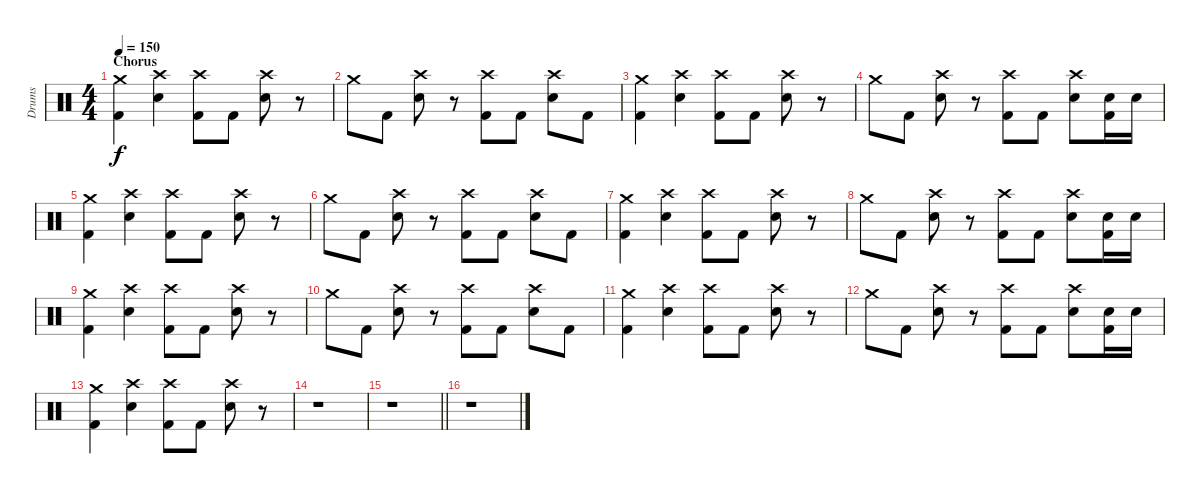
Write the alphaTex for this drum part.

\track ("Drums" "Drums") {instrument percussion}
\staff {score}
\articulation defaults
\ts (4 4)
\section ("" "Chorus")
\tempo 150
\clef neutral
\ks c
("Crash medium (hit)" "Kick (hit) 2").4{dy f} ("Crash high (hit)" "Electric Snare (hit)").4 ("Crash high (hit)" "Kick (hit) 2").8 "Kick (hit) 2".8 ("Crash high (hit)" "Electric Snare (hit)").8 r.8 |
"Crash medium (hit)".8 "Kick (hit) 2".8 ("Crash high (hit)" "Electric Snare (hit)").8 r.8 ("Crash high (hit)" "Kick (hit) 2").8 "Kick (hit) 2".8 ("Crash high (hit)" "Electric Snare (hit)").8 "Kick (hit) 2".8 |
("Crash medium (hit)" "Kick (hit) 2").4 ("Crash high (hit)" "Electric Snare (hit)").4 ("Crash high (hit)" "Kick (hit) 2").8 "Kick (hit) 2".8 ("Crash high (hit)" "Electric Snare (hit)").8 r.8 |
"Crash medium (hit)".8 "Kick (hit) 2".8 ("Crash high (hit)" "Electric Snare (hit)").8 r.8 ("Crash high (hit)" "Kick (hit) 2").8 "Kick (hit) 2".8 ("Crash high (hit)" "Electric Snare (hit)").8 ("Electric Snare (hit)" "Kick (hit) 2").16 "Electric Snare (hit)".16 |
("Crash medium (hit)" "Kick (hit) 2").4 ("Crash high (hit)" "Electric Snare (hit)").4 ("Crash high (hit)" "Kick (hit) 2").8 "Kick (hit) 2".8 ("Crash high (hit)" "Electric Snare (hit)").8 r.8 |
"Crash medium (hit)".8 "Kick (hit) 2".8 ("Crash high (hit)" "Electric Snare (hit)").8 r.8 ("Crash high (hit)" "Kick (hit) 2").8 "Kick (hit) 2".8 ("Crash high (hit)" "Electric Snare (hit)").8 "Kick (hit) 2".8 |
("Crash medium (hit)" "Kick (hit) 2").4 ("Crash high (hit)" "Electric Snare (hit)").4 ("Crash high (hit)" "Kick (hit) 2").8 "Kick (hit) 2".8 ("Crash high (hit)" "Electric Snare (hit)").8 r.8 |
"Crash medium (hit)".8 "Kick (hit) 2".8 ("Crash high (hit)" "Electric Snare (hit)").8 r.8 ("Crash high (hit)" "Kick (hit) 2").8 "Kick (hit) 2".8 ("Crash high (hit)" "Electric Snare (hit)").8 ("Electric Snare (hit)" "Kick (hit) 2").16 "Electric Snare (hit)".16 |
("Crash medium (hit)" "Kick (hit) 2").4 ("Crash high (hit)" "Electric Snare (hit)").4 ("Crash high (hit)" "Kick (hit) 2").8 "Kick (hit) 2".8 ("Crash high (hit)" "Electric Snare (hit)").8 r.8 |
"Crash medium (hit)".8 "Kick (hit) 2".8 ("Crash high (hit)" "Electric Snare (hit)").8 r.8 ("Crash high (hit)" "Kick (hit) 2").8 "Kick (hit) 2".8 ("Crash high (hit)" "Electric Snare (hit)").8 "Kick (hit) 2".8 |
("Crash medium (hit)" "Kick (hit) 2").4 ("Crash high (hit)" "Electric Snare (hit)").4 ("Crash high (hit)" "Kick (hit) 2").8 "Kick (hit) 2".8 ("Crash high (hit)" "Electric Snare (hit)").8 r.8 |
"Crash medium (hit)".8 "Kick (hit) 2".8 ("Crash high (hit)" "Electric Snare (hit)").8 r.8 ("Crash high (hit)" "Kick (hit) 2").8 "Kick (hit) 2".8 ("Crash high (hit)" "Electric Snare (hit)").8 ("Electric Snare (hit)" "Kick (hit) 2").16 "Electric Snare (hit)".16 |
("Crash medium (hit)" "Kick (hit) 2").4 ("Crash high (hit)" "Electric Snare (hit)").4 ("Crash high (hit)" "Kick (hit) 2").8 "Kick (hit) 2".8 ("Crash high (hit)" "Electric Snare (hit)").8 r.8 |
r.1 |
\barLineRight lightlight
r.1 |
r.1
